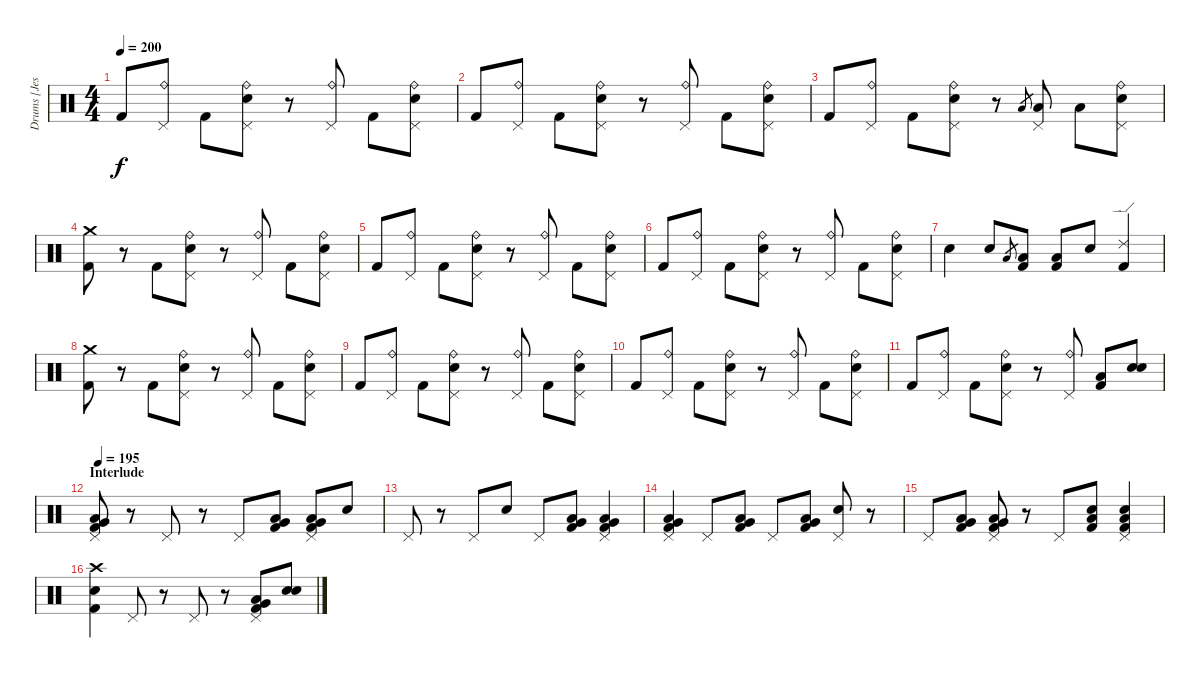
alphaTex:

\track ("Drums [Jesse Ingelevics]" "Drums [Jes") {instrument percussion}
\staff {score}
\articulation defaults
\ts (4 4)
\tempo 200
\clef neutral
\ks c "Kick (hit) 2".8{dy f}
("Ride (bell)" "Pedal Hi-Hat (hit)").8 "Kick (hit) 2".8 ("Ride (bell)" "Pedal Hi-Hat (hit)" "Electric Snare (hit)").8 r.8 ("Ride (bell)" "Pedal Hi-Hat (hit)").8 "Kick (hit) 2".8 ("Ride (bell)" "Pedal Hi-Hat (hit)" "Electric Snare (hit)").8 |
"Kick (hit) 2".8 ("Ride (bell)" "Pedal Hi-Hat (hit)").8 "Kick (hit) 2".8 ("Ride (bell)" "Pedal Hi-Hat (hit)" "Electric Snare (hit)").8 r.8 ("Ride (bell)" "Pedal Hi-Hat (hit)").8 "Kick (hit) 2".8 ("Ride (bell)" "Pedal Hi-Hat (hit)" "Electric Snare (hit)").8 |
"Kick (hit) 2".8 ("Ride (bell)" "Pedal Hi-Hat (hit)").8 "Kick (hit) 2".8 ("Ride (bell)" "Pedal Hi-Hat (hit)" "Electric Snare (hit)").8 r.8 "Low Tom (hit)".8{gr} ("Pedal Hi-Hat (hit)" "Low Tom (hit)").8 "Low Tom (hit)".8 ("Ride (bell)" "Pedal Hi-Hat (hit)" "Electric Snare (hit)").8 |
("Crash medium (hit)" "Kick (hit) 2").8 r.8 "Kick (hit) 2".8 ("Ride (bell)" "Pedal Hi-Hat (hit)" "Electric Snare (hit)").8 r.8 ("Ride (bell)" "Pedal Hi-Hat (hit)").8 "Kick (hit) 2".8 ("Ride (bell)" "Pedal Hi-Hat (hit)" "Electric Snare (hit)").8 |
"Kick (hit) 2".8 ("Ride (bell)" "Pedal Hi-Hat (hit)").8 "Kick (hit) 2".8 ("Ride (bell)" "Pedal Hi-Hat (hit)" "Electric Snare (hit)").8 r.8 ("Ride (bell)" "Pedal Hi-Hat (hit)").8 "Kick (hit) 2".8 ("Ride (bell)" "Pedal Hi-Hat (hit)" "Electric Snare (hit)").8 |
"Kick (hit) 2".8 ("Ride (bell)" "Pedal Hi-Hat (hit)").8 "Kick (hit) 2".8 ("Ride (bell)" "Pedal Hi-Hat (hit)" "Electric Snare (hit)").8 r.8 ("Ride (bell)" "Pedal Hi-Hat (hit)").8 "Kick (hit) 2".8 ("Ride (bell)" "Pedal Hi-Hat (hit)" "Electric Snare (hit)").8 |
"Electric Snare (hit)".4 "Electric Snare (hit)".8 "Low Tom (hit)".8{gr} ("Low Tom (hit)" "Kick (hit) 2").8 ("Low Tom (hit)" "Kick (hit) 2").8 "Electric Snare (hit)".8 ("Ride (edge) 2" "Kick (hit) 2").4 |
("Crash medium (hit)" "Kick (hit) 2").8 r.8 "Kick (hit) 2".8 ("Ride (bell)" "Pedal Hi-Hat (hit)" "Electric Snare (hit)").8 r.8 ("Ride (bell)" "Pedal Hi-Hat (hit)").8 "Kick (hit) 2".8 ("Ride (bell)" "Pedal Hi-Hat (hit)" "Electric Snare (hit)").8 |
"Kick (hit) 2".8 ("Ride (bell)" "Pedal Hi-Hat (hit)").8 "Kick (hit) 2".8 ("Ride (bell)" "Pedal Hi-Hat (hit)" "Electric Snare (hit)").8 r.8 ("Ride (bell)" "Pedal Hi-Hat (hit)").8 "Kick (hit) 2".8 ("Ride (bell)" "Pedal Hi-Hat (hit)" "Electric Snare (hit)").8 |
"Kick (hit) 2".8 ("Ride (bell)" "Pedal Hi-Hat (hit)").8 "Kick (hit) 2".8 ("Ride (bell)" "Pedal Hi-Hat (hit)" "Electric Snare (hit)").8 r.8 ("Ride (bell)" "Pedal Hi-Hat (hit)").8 "Kick (hit) 2".8 ("Ride (bell)" "Pedal Hi-Hat (hit)" "Electric Snare (hit)").8 |
"Kick (hit) 2".8 ("Ride (bell)" "Pedal Hi-Hat (hit)").8 "Kick (hit) 2".8 ("Ride (bell)" "Pedal Hi-Hat (hit)" "Electric Snare (hit)").8 r.8 ("Ride (bell)" "Pedal Hi-Hat (hit)").8 ("Low Tom (hit)" "Kick (hit) 2").8 ("Electric Snare (hit)" "Electric Snare (hit)").8 |
\section ("" "Interlude")
\tempo 195
("Pedal Hi-Hat (hit)" "Very Low Tom (hit)" "Low Floor Tom (hit)" "Kick (hit) 2").8 r.8 "Pedal Hi-Hat (hit)".8 r.8 "Pedal Hi-Hat (hit)".8 ("Very Low Tom (hit)" "Low Floor Tom (hit)" "Kick (hit) 2").8 ("Pedal Hi-Hat (hit)" "Very Low Tom (hit)" "Low Floor Tom (hit)" "Kick (hit) 2").8 "Electric Snare (hit)".8 |
"Pedal Hi-Hat (hit)".8 r.8 "Pedal Hi-Hat (hit)".8 "Electric Snare (hit)".8 "Pedal Hi-Hat (hit)".8 ("Very Low Tom (hit)" "Low Floor Tom (hit)" "Kick (hit) 2").8 ("Pedal Hi-Hat (hit)" "Very Low Tom (hit)" "Low Floor Tom (hit)" "Kick (hit) 2").4 |
("Pedal Hi-Hat (hit)" "Very Low Tom (hit)" "Low Floor Tom (hit)" "Kick (hit) 2").4 "Pedal Hi-Hat (hit)".8 ("Very Low Tom (hit)" "Low Floor Tom (hit)" "Kick (hit) 2").8 "Pedal Hi-Hat (hit)".8 ("Very Low Tom (hit)" "Low Floor Tom (hit)" "Kick (hit) 2").8 ("Pedal Hi-Hat (hit)" "Electric Snare (hit)").8 r.8 |
"Pedal Hi-Hat (hit)".8 ("Very Low Tom (hit)" "Low Floor Tom (hit)" "Kick (hit) 2").8 ("Pedal Hi-Hat (hit)" "Very Low Tom (hit)" "Low Floor Tom (hit)" "Kick (hit) 2").8 r.8 "Pedal Hi-Hat (hit)".8 ("Electric Snare (hit)" "Low Floor Tom (hit)" "Kick (hit) 2").8 ("Pedal Hi-Hat (hit)" "Electric Snare (hit)" "Low Floor Tom (hit)" "Kick (hit) 2").4 |
("Crash high (hit)" "Electric Snare (hit)" "Kick (hit) 2").4 "Pedal Hi-Hat (hit)".8 r.8 "Pedal Hi-Hat (hit)".8 r.8 ("Pedal Hi-Hat (hit)" "Very Low Tom (hit)" "Low Floor Tom (hit)" "Kick (hit) 2").8 ("Electric Snare (hit)" "Electric Snare (hit)").8
